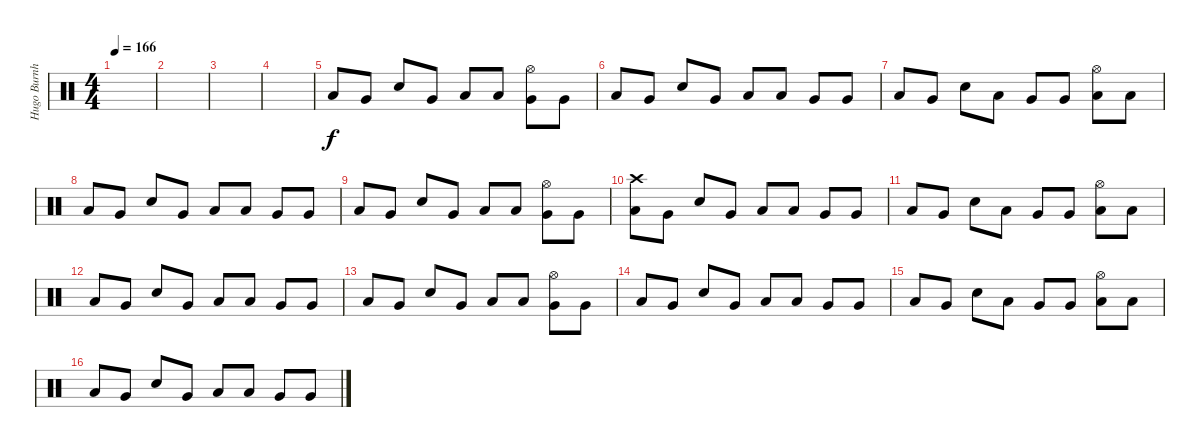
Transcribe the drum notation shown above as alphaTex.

\track ("Hugo Burnham" "Hugo Burnh") {instrument percussion}
\staff {score}
\articulation defaults
\ts (4 4)
\tempo 166
\clef neutral
\ks c
|
|
|
|
"Low Tom (hit)".8 "Very Low Tom (hit)".8 "Electric Snare (hit)".8 "Very Low Tom (hit)".8 "Low Tom (hit)".8 "Low Tom (hit)".8 ("Hi-Hat (open)" "Very Low Tom (hit)").8 "Very Low Tom (hit)".8 |
"Low Tom (hit)".8 "Very Low Tom (hit)".8 "Electric Snare (hit)".8 "Very Low Tom (hit)".8 "Low Tom (hit)".8 "Low Tom (hit)".8 "Very Low Tom (hit)".8 "Very Low Tom (hit)".8 |
"Low Tom (hit)".8 "Very Low Tom (hit)".8 "Electric Snare (hit)".8 "Low Tom (hit)".8 "Very Low Tom (hit)".8 "Very Low Tom (hit)".8 ("Hi-Hat (open)" "Low Tom (hit)").8 "Low Tom (hit)".8 |
"Low Tom (hit)".8 "Very Low Tom (hit)".8 "Electric Snare (hit)".8 "Very Low Tom (hit)".8 "Low Tom (hit)".8 "Low Tom (hit)".8 "Very Low Tom (hit)".8 "Very Low Tom (hit)".8 |
"Low Tom (hit)".8 "Very Low Tom (hit)".8 "Electric Snare (hit)".8 "Very Low Tom (hit)".8 "Low Tom (hit)".8 "Low Tom (hit)".8 ("Hi-Hat (open)" "Very Low Tom (hit)").8 "Very Low Tom (hit)".8 |
("Crash high (hit)" "Low Tom (hit)").8 "Very Low Tom (hit)".8 "Electric Snare (hit)".8 "Very Low Tom (hit)".8 "Low Tom (hit)".8 "Low Tom (hit)".8 "Very Low Tom (hit)".8 "Very Low Tom (hit)".8 |
"Low Tom (hit)".8 "Very Low Tom (hit)".8 "Electric Snare (hit)".8 "Low Tom (hit)".8 "Very Low Tom (hit)".8 "Very Low Tom (hit)".8 ("Hi-Hat (open)" "Low Tom (hit)").8 "Low Tom (hit)".8 |
"Low Tom (hit)".8 "Very Low Tom (hit)".8 "Electric Snare (hit)".8 "Very Low Tom (hit)".8 "Low Tom (hit)".8 "Low Tom (hit)".8 "Very Low Tom (hit)".8 "Very Low Tom (hit)".8 |
"Low Tom (hit)".8 "Very Low Tom (hit)".8 "Electric Snare (hit)".8 "Very Low Tom (hit)".8 "Low Tom (hit)".8 "Low Tom (hit)".8 ("Hi-Hat (open)" "Very Low Tom (hit)").8 "Very Low Tom (hit)".8 |
"Low Tom (hit)".8 "Very Low Tom (hit)".8 "Electric Snare (hit)".8 "Very Low Tom (hit)".8 "Low Tom (hit)".8 "Low Tom (hit)".8 "Very Low Tom (hit)".8 "Very Low Tom (hit)".8 |
"Low Tom (hit)".8 "Very Low Tom (hit)".8 "Electric Snare (hit)".8 "Low Tom (hit)".8 "Very Low Tom (hit)".8 "Very Low Tom (hit)".8 ("Hi-Hat (open)" "Low Tom (hit)").8 "Low Tom (hit)".8 |
"Low Tom (hit)".8 "Very Low Tom (hit)".8 "Electric Snare (hit)".8 "Very Low Tom (hit)".8 "Low Tom (hit)".8 "Low Tom (hit)".8 "Very Low Tom (hit)".8 "Very Low Tom (hit)".8
